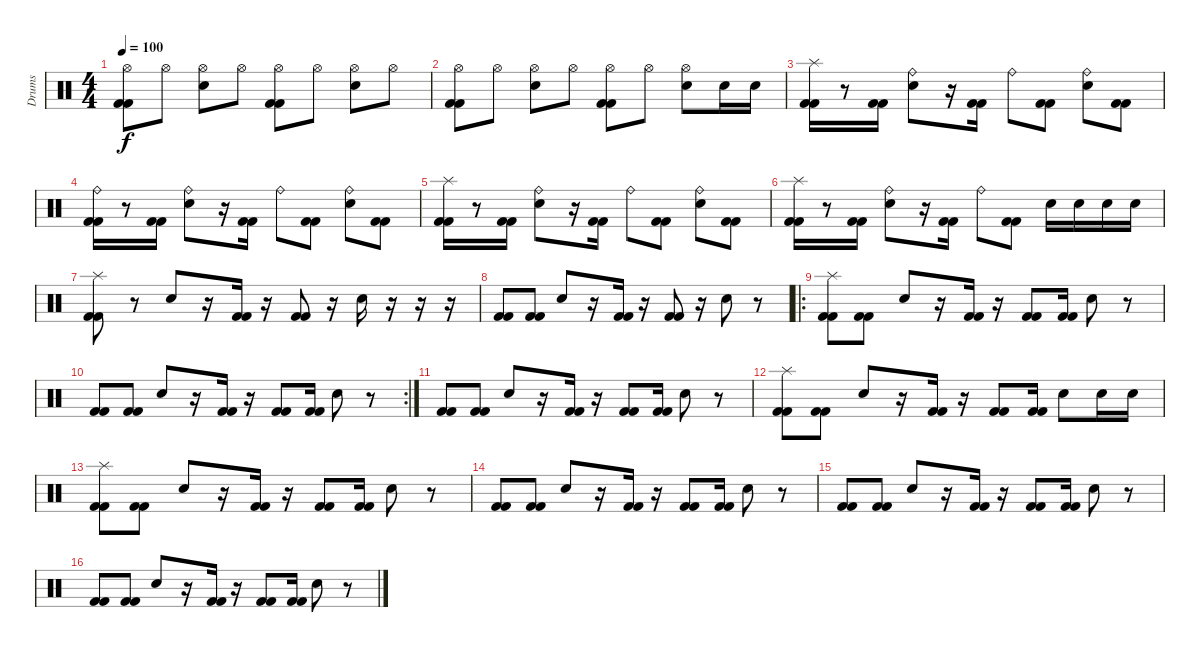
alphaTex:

\track ("Drums" "Drums") {instrument percussion}
\staff {score}
\articulation defaults
\ts (4 4)
\tempo 100
\clef neutral
\ks c
("Hi-Hat (open)" "Kick (hit) 2" "Kick (hit) 2").8{dy f} "Hi-Hat (open)".8 ("Hi-Hat (open)" "Electric Snare (hit)").8 "Hi-Hat (open)".8 ("Hi-Hat (open)" "Kick (hit) 2" "Kick (hit) 2").8 "Hi-Hat (open)".8 ("Hi-Hat (open)" "Electric Snare (hit)").8 "Hi-Hat (open)".8 |
("Hi-Hat (open)" "Kick (hit) 2" "Kick (hit) 2").8 "Hi-Hat (open)".8 ("Hi-Hat (open)" "Electric Snare (hit)").8 "Hi-Hat (open)".8 ("Hi-Hat (open)" "Kick (hit) 2" "Kick (hit) 2").8 "Hi-Hat (open)".8 ("Hi-Hat (open)" "Electric Snare (hit)").8 "Electric Snare (hit)".16 "Electric Snare (hit)".16 |
("Splash (hit)" "Kick (hit) 2" "Kick (hit) 2").16 r.8 ("Kick (hit) 2" "Kick (hit) 2").16 ("Ride (bell)" "Electric Snare (hit)").8 r.16 ("Kick (hit) 2" "Kick (hit) 2").16 "Ride (bell)".8 ("Kick (hit) 2" "Kick (hit) 2").8 ("Ride (bell)" "Electric Snare (hit)").8 ("Kick (hit) 2" "Kick (hit) 2").8 |
("Ride (bell)" "Kick (hit) 2" "Kick (hit) 2").16 r.8 ("Kick (hit) 2" "Kick (hit) 2").16 ("Ride (bell)" "Electric Snare (hit)").8 r.16 ("Kick (hit) 2" "Kick (hit) 2").16 "Ride (bell)".8 ("Kick (hit) 2" "Kick (hit) 2").8 ("Ride (bell)" "Electric Snare (hit)").8 ("Kick (hit) 2" "Kick (hit) 2").8 |
("Splash (hit)" "Kick (hit) 2" "Kick (hit) 2").16 r.8 ("Kick (hit) 2" "Kick (hit) 2").16 ("Ride (bell)" "Electric Snare (hit)").8 r.16 ("Kick (hit) 2" "Kick (hit) 2").16 "Ride (bell)".8 ("Kick (hit) 2" "Kick (hit) 2").8 ("Ride (bell)" "Electric Snare (hit)").8 ("Kick (hit) 2" "Kick (hit) 2").8 |
("Splash (hit)" "Kick (hit) 2" "Kick (hit) 2").16 r.8 ("Kick (hit) 2" "Kick (hit) 2").16 ("Ride (bell)" "Electric Snare (hit)").8 r.16 ("Kick (hit) 2" "Kick (hit) 2").16 "Ride (bell)".8 ("Kick (hit) 2" "Kick (hit) 2").8 "Electric Snare (hit)".16 "Electric Snare (hit)".16 "Electric Snare (hit)".16 "Electric Snare (hit)".16 |
("Splash (hit)" "Kick (hit) 2" "Kick (hit) 2").8 r.8 "Electric Snare (hit)".8 r.16 ("Kick (hit) 2" "Kick (hit) 2").16 r.16 ("Kick (hit) 2" "Kick (hit) 2").8 r.16 "Electric Snare (hit)".16 r.16 r.16 r.16 |
("Kick (hit) 2" "Kick (hit) 2").8 ("Kick (hit) 2" "Kick (hit) 2").8 "Electric Snare (hit)".8 r.16 ("Kick (hit) 2" "Kick (hit) 2").16 r.16 ("Kick (hit) 2" "Kick (hit) 2").8 r.16 "Electric Snare (hit)".8 r.8 |
\ro
("Splash (hit)" "Kick (hit) 2" "Kick (hit) 2").8 ("Kick (hit) 2" "Kick (hit) 2").8 "Electric Snare (hit)".8 r.16 ("Kick (hit) 2" "Kick (hit) 2").16 r.16 ("Kick (hit) 2" "Kick (hit) 2").8 ("Kick (hit) 2" "Kick (hit) 2").16 "Electric Snare (hit)".8 r.8 |
\rc 2
("Kick (hit) 2" "Kick (hit) 2").8 ("Kick (hit) 2" "Kick (hit) 2").8 "Electric Snare (hit)".8 r.16 ("Kick (hit) 2" "Kick (hit) 2").16 r.16 ("Kick (hit) 2" "Kick (hit) 2").8 ("Kick (hit) 2" "Kick (hit) 2").16 "Electric Snare (hit)".8 r.8 |
("Kick (hit) 2" "Kick (hit) 2").8 ("Kick (hit) 2" "Kick (hit) 2").8 "Electric Snare (hit)".8 r.16 ("Kick (hit) 2" "Kick (hit) 2").16 r.16 ("Kick (hit) 2" "Kick (hit) 2").8 ("Kick (hit) 2" "Kick (hit) 2").16 "Electric Snare (hit)".8 r.8 |
("Splash (hit)" "Kick (hit) 2" "Kick (hit) 2").8 ("Kick (hit) 2" "Kick (hit) 2").8 "Electric Snare (hit)".8 r.16 ("Kick (hit) 2" "Kick (hit) 2").16 r.16 ("Kick (hit) 2" "Kick (hit) 2").8 ("Kick (hit) 2" "Kick (hit) 2").16 "Electric Snare (hit)".8 "Electric Snare (hit)".16 "Electric Snare (hit)".16 |
("Splash (hit)" "Kick (hit) 2" "Kick (hit) 2").8 ("Kick (hit) 2" "Kick (hit) 2").8 "Electric Snare (hit)".8 r.16 ("Kick (hit) 2" "Kick (hit) 2").16 r.16 ("Kick (hit) 2" "Kick (hit) 2").8 ("Kick (hit) 2" "Kick (hit) 2").16 "Electric Snare (hit)".8 r.8 |
("Kick (hit) 2" "Kick (hit) 2").8 ("Kick (hit) 2" "Kick (hit) 2").8 "Electric Snare (hit)".8 r.16 ("Kick (hit) 2" "Kick (hit) 2").16 r.16 ("Kick (hit) 2" "Kick (hit) 2").8 ("Kick (hit) 2" "Kick (hit) 2").16 "Electric Snare (hit)".8 r.8 |
("Kick (hit) 2" "Kick (hit) 2").8 ("Kick (hit) 2" "Kick (hit) 2").8 "Electric Snare (hit)".8 r.16 ("Kick (hit) 2" "Kick (hit) 2").16 r.16 ("Kick (hit) 2" "Kick (hit) 2").8 ("Kick (hit) 2" "Kick (hit) 2").16 "Electric Snare (hit)".8 r.8 |
("Kick (hit) 2" "Kick (hit) 2").8 ("Kick (hit) 2" "Kick (hit) 2").8 "Electric Snare (hit)".8 r.16 ("Kick (hit) 2" "Kick (hit) 2").16 r.16 ("Kick (hit) 2" "Kick (hit) 2").8 ("Kick (hit) 2" "Kick (hit) 2").16 "Electric Snare (hit)".8 r.8
